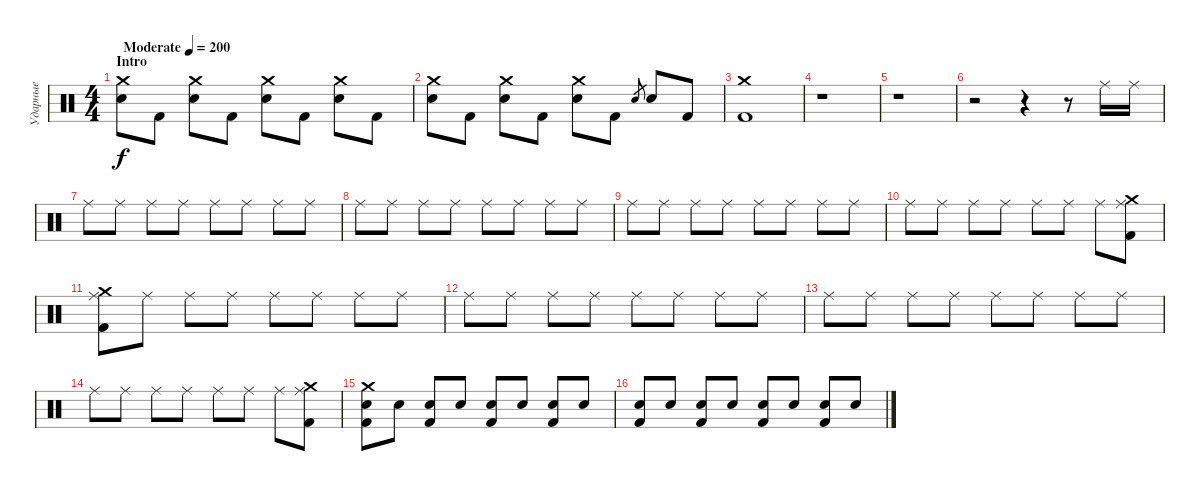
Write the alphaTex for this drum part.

\track ("Ударные" "Ударные") {instrument percussion}
\staff {score}
\articulation defaults
\ts (4 4)
\section ("" "Intro")
\tempo (200 "Moderate")
\clef neutral
\ks c
("Crash medium (hit)" "Electric Snare (hit)").8{dy f} "Kick (hit) 2".8 ("Crash medium (hit)" "Electric Snare (hit)").8 "Kick (hit) 2".8 ("Crash medium (hit)" "Electric Snare (hit)").8 "Kick (hit) 2".8 ("Crash medium (hit)" "Electric Snare (hit)").8 "Kick (hit) 2".8 |
("Crash medium (hit)" "Electric Snare (hit)").8 "Kick (hit) 2".8 ("Crash medium (hit)" "Electric Snare (hit)").8 "Kick (hit) 2".8 ("Crash medium (hit)" "Electric Snare (hit)").8 "Kick (hit) 2".8 "Electric Snare (hit)".8{gr} "Electric Snare (hit)".8 "Kick (hit) 2".8 |
("Crash medium (hit)" "Kick (hit) 2").1 |
r.1 |
r.1 |
r.2 r.4 r.8 "Ride (middle)".16 "Ride (middle)".16 |
"Ride (middle)".8 "Ride (middle)".8 "Ride (middle)".8 "Ride (middle)".8 "Ride (middle)".8 "Ride (middle)".8 "Ride (middle)".8 "Ride (middle)".8 |
"Ride (middle)".8 "Ride (middle)".8 "Ride (middle)".8 "Ride (middle)".8 "Ride (middle)".8 "Ride (middle)".8 "Ride (middle)".8 "Ride (middle)".8 |
"Ride (middle)".8 "Ride (middle)".8 "Ride (middle)".8 "Ride (middle)".8 "Ride (middle)".8 "Ride (middle)".8 "Ride (middle)".8 "Ride (middle)".8 |
"Ride (middle)".8 "Ride (middle)".8 "Ride (middle)".8 "Ride (middle)".8 "Ride (middle)".8 "Ride (middle)".8 "Ride (middle)".8 ("Crash medium (hit)" "Ride (middle)" "Kick (hit) 2").8 |
("Crash medium (hit)" "Ride (middle)" "Kick (hit) 2").8 "Ride (middle)".8 "Ride (middle)".8 "Ride (middle)".8 "Ride (middle)".8 "Ride (middle)".8 "Ride (middle)".8 "Ride (middle)".8 |
"Ride (middle)".8 "Ride (middle)".8 "Ride (middle)".8 "Ride (middle)".8 "Ride (middle)".8 "Ride (middle)".8 "Ride (middle)".8 "Ride (middle)".8 |
"Ride (middle)".8 "Ride (middle)".8 "Ride (middle)".8 "Ride (middle)".8 "Ride (middle)".8 "Ride (middle)".8 "Ride (middle)".8 "Ride (middle)".8 |
"Ride (middle)".8 "Ride (middle)".8 "Ride (middle)".8 "Ride (middle)".8 "Ride (middle)".8 "Ride (middle)".8 "Ride (middle)".8 ("Crash medium (hit)" "Ride (middle)" "Kick (hit) 2").8 |
("Crash medium (hit)" "Electric Snare (hit)" "Kick (hit) 2").8 "Electric Snare (hit)".8{volume 10} ("Electric Snare (hit)" "Kick (hit) 2").8{volume 14} "Electric Snare (hit)".8 ("Electric Snare (hit)" "Kick (hit) 2").8 "Electric Snare (hit)".8 ("Electric Snare (hit)" "Kick (hit) 2").8 "Electric Snare (hit)".8 |
("Electric Snare (hit)" "Kick (hit) 2").8 "Electric Snare (hit)".8 ("Electric Snare (hit)" "Kick (hit) 2").8 "Electric Snare (hit)".8 ("Electric Snare (hit)" "Kick (hit) 2").8 "Electric Snare (hit)".8 ("Electric Snare (hit)" "Kick (hit) 2").8 "Electric Snare (hit)".8
